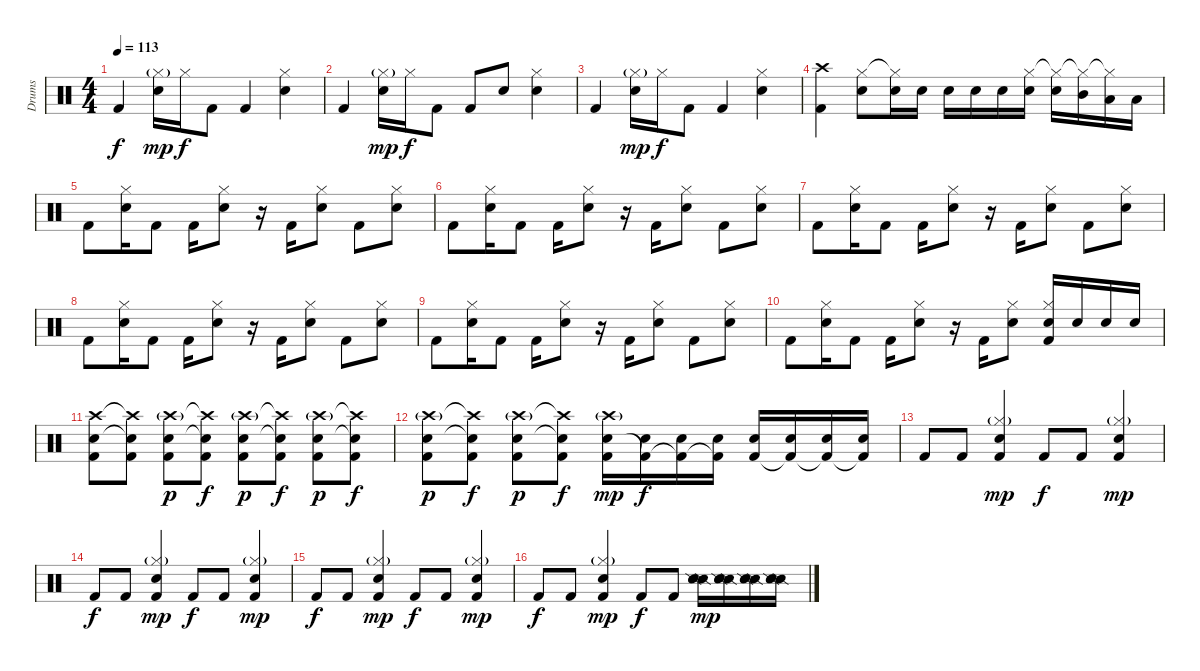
\track ("Drums" "Drums") {instrument percussion}
\staff {score}
\articulation defaults
\ts (4 4)
\tempo 113
\clef neutral
\ks c "Kick (hit) 2".4{dy f}
("Hi-Hat (closed)"{g} "Electric Snare (hit)").16{dy mp} "Hi-Hat (closed)".16{dy f} "Kick (hit) 2".8 "Kick (hit) 2".4 ("Hi-Hat (closed)" "Electric Snare (hit)").4 |
"Kick (hit) 2".4 ("Hi-Hat (closed)"{g} "Electric Snare (hit)").16{dy mp} "Hi-Hat (closed)".16{dy f} "Kick (hit) 2".8 "Kick (hit) 2".8 "Electric Snare (hit)".8 ("Hi-Hat (closed)" "Electric Snare (hit)").4 |
"Kick (hit) 2".4 ("Hi-Hat (closed)"{g} "Electric Snare (hit)").16{dy mp} "Hi-Hat (closed)".16{dy f} "Kick (hit) 2".8 "Kick (hit) 2".4 ("Hi-Hat (closed)" "Electric Snare (hit)").4 |
("Crash high (hit)" "Kick (hit) 2").4 ("Hi-Hat (closed)" "Electric Snare (hit)").8 ("Hi-Hat (closed)"{t} "Electric Snare (hit)").16 "Electric Snare (hit)".16 "Electric Snare (hit)".16 "Electric Snare (hit)".16 "Electric Snare (hit)".16 ("Hi-Hat (closed)" "Electric Snare (hit)").16 ("Hi-Hat (closed)"{t} "Electric Snare (hit)").16 ("Hi-Hat (closed)"{t} "Mid Tom (hit)").16 ("Hi-Hat (closed)"{t} "Low Tom (hit)").16 "Low Floor Tom (hit)".16 |
"Kick (hit) 2".8 ("Hi-Hat (closed)" "Electric Snare (hit)").16 "Kick (hit) 2".8 "Kick (hit) 2".16 ("Hi-Hat (closed)" "Electric Snare (hit)").8 r.16 "Kick (hit) 2".16 ("Hi-Hat (closed)" "Electric Snare (hit)").8 "Kick (hit) 2".8 ("Hi-Hat (closed)" "Electric Snare (hit)").8 |
"Kick (hit) 2".8 ("Hi-Hat (closed)" "Electric Snare (hit)").16 "Kick (hit) 2".8 "Kick (hit) 2".16 ("Hi-Hat (closed)" "Electric Snare (hit)").8 r.16 "Kick (hit) 2".16 ("Hi-Hat (closed)" "Electric Snare (hit)").8 "Kick (hit) 2".8 ("Hi-Hat (closed)" "Electric Snare (hit)").8 |
"Kick (hit) 2".8 ("Hi-Hat (closed)" "Electric Snare (hit)").16 "Kick (hit) 2".8 "Kick (hit) 2".16 ("Hi-Hat (closed)" "Electric Snare (hit)").8 r.16 "Kick (hit) 2".16 ("Hi-Hat (closed)" "Electric Snare (hit)").8 "Kick (hit) 2".8 ("Hi-Hat (closed)" "Electric Snare (hit)").8 |
"Kick (hit) 2".8 ("Hi-Hat (closed)" "Electric Snare (hit)").16 "Kick (hit) 2".8 "Kick (hit) 2".16 ("Hi-Hat (closed)" "Electric Snare (hit)").8 r.16 "Kick (hit) 2".16 ("Hi-Hat (closed)" "Electric Snare (hit)").8 "Kick (hit) 2".8 ("Hi-Hat (closed)" "Electric Snare (hit)").8 |
"Kick (hit) 2".8 ("Hi-Hat (closed)" "Electric Snare (hit)").16 "Kick (hit) 2".8 "Kick (hit) 2".16 ("Hi-Hat (closed)" "Electric Snare (hit)").8 r.16 "Kick (hit) 2".16 ("Hi-Hat (closed)" "Electric Snare (hit)").8 "Kick (hit) 2".8 ("Hi-Hat (closed)" "Electric Snare (hit)").8 |
"Kick (hit) 2".8 ("Hi-Hat (closed)" "Electric Snare (hit)").16 "Kick (hit) 2".8 "Kick (hit) 2".16 ("Hi-Hat (closed)" "Electric Snare (hit)").8 r.16 "Kick (hit) 2".16 ("Hi-Hat (closed)" "Electric Snare (hit)").8 ("Hi-Hat (closed)" "Electric Snare (hit)" "Kick (hit) 2").16 "Electric Snare (hit)".16 "Electric Snare (hit)".16 "Electric Snare (hit)".16 |
("Crash high (hit)" "Electric Snare (hit)" "Kick (hit) 2").8 ("Crash high (hit)"{t} "Electric Snare (hit)"{t} "Kick (hit) 2").8 ("Crash high (hit)"{g} "Electric Snare (hit)" "Kick (hit) 2").8{dy p} ("Crash high (hit)"{t} "Electric Snare (hit)"{t} "Kick (hit) 2").8{dy f} ("Crash high (hit)"{g} "Electric Snare (hit)" "Kick (hit) 2").8{dy p} ("Crash high (hit)"{t} "Electric Snare (hit)"{t} "Kick (hit) 2").8{dy f} ("Crash high (hit)"{g} "Electric Snare (hit)" "Kick (hit) 2").8{dy p} ("Crash high (hit)"{t} "Electric Snare (hit)"{t} "Kick (hit) 2").8{dy f} |
("Crash high (hit)"{g} "Electric Snare (hit)" "Kick (hit) 2").8{dy p} ("Crash high (hit)"{t} "Electric Snare (hit)"{t} "Kick (hit) 2").8{dy f} ("Crash high (hit)"{g} "Electric Snare (hit)" "Kick (hit) 2").8{dy p} ("Crash high (hit)"{t} "Electric Snare (hit)"{t} "Kick (hit) 2").8{dy f} ("Crash high (hit)"{g} "Electric Snare (hit)" "Kick (hit) 2").16{dy mp} ("Electric Snare (hit)" "Kick (hit) 2"{t}).16{dy f} ("Electric Snare (hit)" "Kick (hit) 2"{t}).16 ("Electric Snare (hit)" "Kick (hit) 2"{t}).16 ("Electric Snare (hit)" "Kick (hit) 2").16 ("Electric Snare (hit)" "Kick (hit) 2"{t}).16 ("Electric Snare (hit)" "Kick (hit) 2"{t}).16 ("Electric Snare (hit)" "Kick (hit) 2"{t}).16 |
"Kick (hit) 2".8 "Kick (hit) 2".8 ("Hi-Hat (closed)"{g} "Electric Snare (hit)" "Kick (hit) 2").4{dy mp} "Kick (hit) 2".8{dy f} "Kick (hit) 2".8 ("Hi-Hat (closed)"{g} "Electric Snare (hit)" "Kick (hit) 2").4{dy mp} |
"Kick (hit) 2".8{dy f} "Kick (hit) 2".8 ("Hi-Hat (closed)"{g} "Electric Snare (hit)" "Kick (hit) 2").4{dy mp} "Kick (hit) 2".8{dy f} "Kick (hit) 2".8 ("Hi-Hat (closed)"{g} "Electric Snare (hit)" "Kick (hit) 2").4{dy mp} |
"Kick (hit) 2".8{dy f} "Kick (hit) 2".8 ("Hi-Hat (closed)"{g} "Electric Snare (hit)" "Kick (hit) 2").4{dy mp} "Kick (hit) 2".8{dy f} "Kick (hit) 2".8 ("Hi-Hat (closed)"{g} "Electric Snare (hit)" "Kick (hit) 2").4{dy mp} |
"Kick (hit) 2".8{dy f} "Kick (hit) 2".8 ("Hi-Hat (closed)"{g} "Electric Snare (hit)" "Kick (hit) 2").4{dy mp} "Kick (hit) 2".8{dy f} "Kick (hit) 2".8 ("Snare (side stick) 2" "Snare (side stick) 2" "Electric Snare (hit)").16{dy mp} ("Snare (side stick) 2" "Snare (side stick) 2" "Electric Snare (hit)").16 ("Snare (side stick) 2" "Snare (side stick) 2" "Electric Snare (hit)").16 ("Snare (side stick) 2" "Snare (side stick) 2" "Electric Snare (hit)").16
